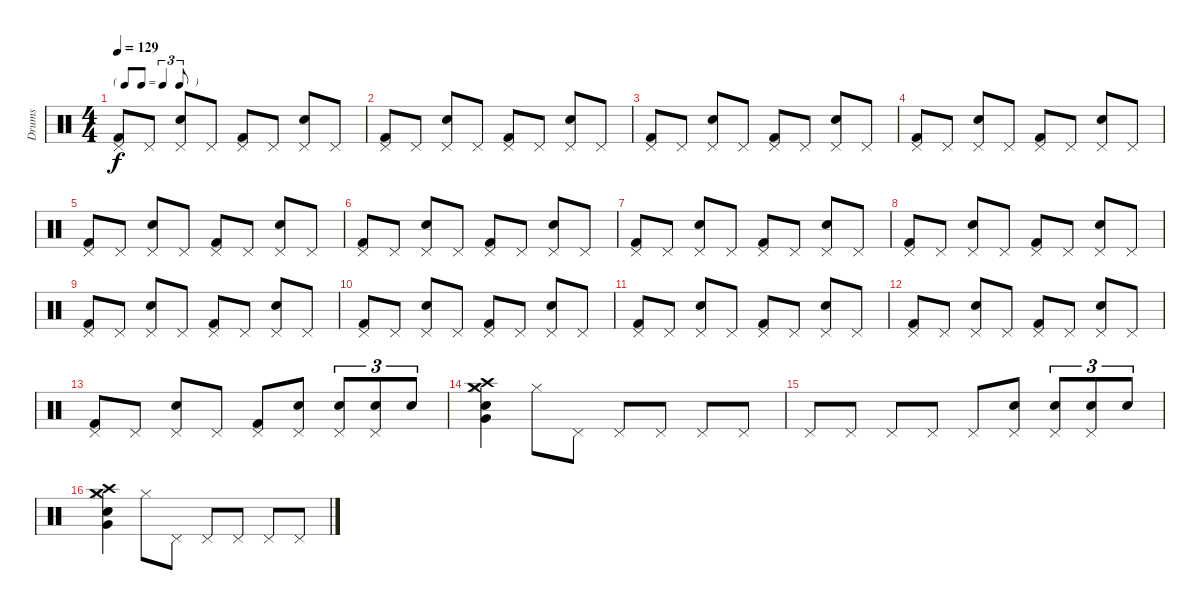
\track ("Drums" "Drums") {instrument percussion}
\staff {score}
\articulation defaults
\ts (4 4)
\tf triplet8th
\tempo 129
\clef neutral
\ks c
("Pedal Hi-Hat (hit)" "Kick (hit) 2").8{dy f} "Pedal Hi-Hat (hit)".8 ("Pedal Hi-Hat (hit)" "Electric Snare (hit)").8 "Pedal Hi-Hat (hit)".8 ("Pedal Hi-Hat (hit)" "Kick (hit) 2").8 "Pedal Hi-Hat (hit)".8 ("Pedal Hi-Hat (hit)" "Electric Snare (hit)").8 "Pedal Hi-Hat (hit)".8 |
("Pedal Hi-Hat (hit)" "Kick (hit) 2").8 "Pedal Hi-Hat (hit)".8 ("Pedal Hi-Hat (hit)" "Electric Snare (hit)").8 "Pedal Hi-Hat (hit)".8 ("Pedal Hi-Hat (hit)" "Kick (hit) 2").8 "Pedal Hi-Hat (hit)".8 ("Pedal Hi-Hat (hit)" "Electric Snare (hit)").8 "Pedal Hi-Hat (hit)".8 |
("Pedal Hi-Hat (hit)" "Kick (hit) 2").8 "Pedal Hi-Hat (hit)".8 ("Pedal Hi-Hat (hit)" "Electric Snare (hit)").8 "Pedal Hi-Hat (hit)".8 ("Pedal Hi-Hat (hit)" "Kick (hit) 2").8 "Pedal Hi-Hat (hit)".8 ("Pedal Hi-Hat (hit)" "Electric Snare (hit)").8 "Pedal Hi-Hat (hit)".8 |
("Pedal Hi-Hat (hit)" "Kick (hit) 2").8 "Pedal Hi-Hat (hit)".8 ("Pedal Hi-Hat (hit)" "Electric Snare (hit)").8 "Pedal Hi-Hat (hit)".8 ("Pedal Hi-Hat (hit)" "Kick (hit) 2").8 "Pedal Hi-Hat (hit)".8 ("Pedal Hi-Hat (hit)" "Electric Snare (hit)").8 "Pedal Hi-Hat (hit)".8 |
("Pedal Hi-Hat (hit)" "Kick (hit) 2").8 "Pedal Hi-Hat (hit)".8 ("Pedal Hi-Hat (hit)" "Electric Snare (hit)").8 "Pedal Hi-Hat (hit)".8 ("Pedal Hi-Hat (hit)" "Kick (hit) 2").8 "Pedal Hi-Hat (hit)".8 ("Pedal Hi-Hat (hit)" "Electric Snare (hit)").8 "Pedal Hi-Hat (hit)".8 |
("Pedal Hi-Hat (hit)" "Kick (hit) 2").8 "Pedal Hi-Hat (hit)".8 ("Pedal Hi-Hat (hit)" "Electric Snare (hit)").8 "Pedal Hi-Hat (hit)".8 ("Pedal Hi-Hat (hit)" "Kick (hit) 2").8 "Pedal Hi-Hat (hit)".8 ("Pedal Hi-Hat (hit)" "Electric Snare (hit)").8 "Pedal Hi-Hat (hit)".8 |
("Pedal Hi-Hat (hit)" "Kick (hit) 2").8 "Pedal Hi-Hat (hit)".8 ("Pedal Hi-Hat (hit)" "Electric Snare (hit)").8 "Pedal Hi-Hat (hit)".8 ("Pedal Hi-Hat (hit)" "Kick (hit) 2").8 "Pedal Hi-Hat (hit)".8 ("Pedal Hi-Hat (hit)" "Electric Snare (hit)").8 "Pedal Hi-Hat (hit)".8 |
("Pedal Hi-Hat (hit)" "Kick (hit) 2").8 "Pedal Hi-Hat (hit)".8 ("Pedal Hi-Hat (hit)" "Electric Snare (hit)").8 "Pedal Hi-Hat (hit)".8 ("Pedal Hi-Hat (hit)" "Kick (hit) 2").8 "Pedal Hi-Hat (hit)".8 ("Pedal Hi-Hat (hit)" "Electric Snare (hit)").8 "Pedal Hi-Hat (hit)".8 |
("Pedal Hi-Hat (hit)" "Kick (hit) 2").8 "Pedal Hi-Hat (hit)".8 ("Pedal Hi-Hat (hit)" "Electric Snare (hit)").8 "Pedal Hi-Hat (hit)".8 ("Pedal Hi-Hat (hit)" "Kick (hit) 2").8 "Pedal Hi-Hat (hit)".8 ("Pedal Hi-Hat (hit)" "Electric Snare (hit)").8 "Pedal Hi-Hat (hit)".8 |
("Pedal Hi-Hat (hit)" "Kick (hit) 2").8 "Pedal Hi-Hat (hit)".8 ("Pedal Hi-Hat (hit)" "Electric Snare (hit)").8 "Pedal Hi-Hat (hit)".8 ("Pedal Hi-Hat (hit)" "Kick (hit) 2").8 "Pedal Hi-Hat (hit)".8 ("Pedal Hi-Hat (hit)" "Electric Snare (hit)").8 "Pedal Hi-Hat (hit)".8 |
("Pedal Hi-Hat (hit)" "Kick (hit) 2").8 "Pedal Hi-Hat (hit)".8 ("Pedal Hi-Hat (hit)" "Electric Snare (hit)").8 "Pedal Hi-Hat (hit)".8 ("Pedal Hi-Hat (hit)" "Kick (hit) 2").8 "Pedal Hi-Hat (hit)".8 ("Pedal Hi-Hat (hit)" "Electric Snare (hit)").8 "Pedal Hi-Hat (hit)".8 |
("Pedal Hi-Hat (hit)" "Kick (hit) 2").8 "Pedal Hi-Hat (hit)".8 ("Pedal Hi-Hat (hit)" "Electric Snare (hit)").8 "Pedal Hi-Hat (hit)".8 ("Pedal Hi-Hat (hit)" "Kick (hit) 2").8 "Pedal Hi-Hat (hit)".8 ("Pedal Hi-Hat (hit)" "Electric Snare (hit)").8 "Pedal Hi-Hat (hit)".8 |
("Pedal Hi-Hat (hit)" "Kick (hit) 2").8 "Pedal Hi-Hat (hit)".8 ("Pedal Hi-Hat (hit)" "Electric Snare (hit)").8 "Pedal Hi-Hat (hit)".8 ("Pedal Hi-Hat (hit)" "Kick (hit) 2").8 ("Pedal Hi-Hat (hit)" "Electric Snare (hit)").8 ("Pedal Hi-Hat (hit)" "Electric Snare (hit)").8{tu (3 2)} ("Pedal Hi-Hat (hit)" "Electric Snare (hit)").8{tu (3 2)} "Electric Snare (hit)".8{tu (3 2)} |
("Very Low Tom (hit)" "Hi-Hat (closed)" "Crash high (hit)" "Crash medium (hit)" "Electric Snare (hit)").4 "Hi-Hat (closed)".8 "Pedal Hi-Hat (hit)".8 "Pedal Hi-Hat (hit)".8 "Pedal Hi-Hat (hit)".8 "Pedal Hi-Hat (hit)".8 "Pedal Hi-Hat (hit)".8 |
"Pedal Hi-Hat (hit)".8 "Pedal Hi-Hat (hit)".8 "Pedal Hi-Hat (hit)".8 "Pedal Hi-Hat (hit)".8 "Pedal Hi-Hat (hit)".8 ("Pedal Hi-Hat (hit)" "Electric Snare (hit)").8 ("Pedal Hi-Hat (hit)" "Electric Snare (hit)").8{tu (3 2)} ("Pedal Hi-Hat (hit)" "Electric Snare (hit)").8{tu (3 2)} "Electric Snare (hit)".8{tu (3 2)} |
("Very Low Tom (hit)" "Hi-Hat (closed)" "Crash high (hit)" "Crash medium (hit)" "Electric Snare (hit)").4 "Hi-Hat (closed)".8 "Pedal Hi-Hat (hit)".8 "Pedal Hi-Hat (hit)".8 "Pedal Hi-Hat (hit)".8 "Pedal Hi-Hat (hit)".8 "Pedal Hi-Hat (hit)".8
